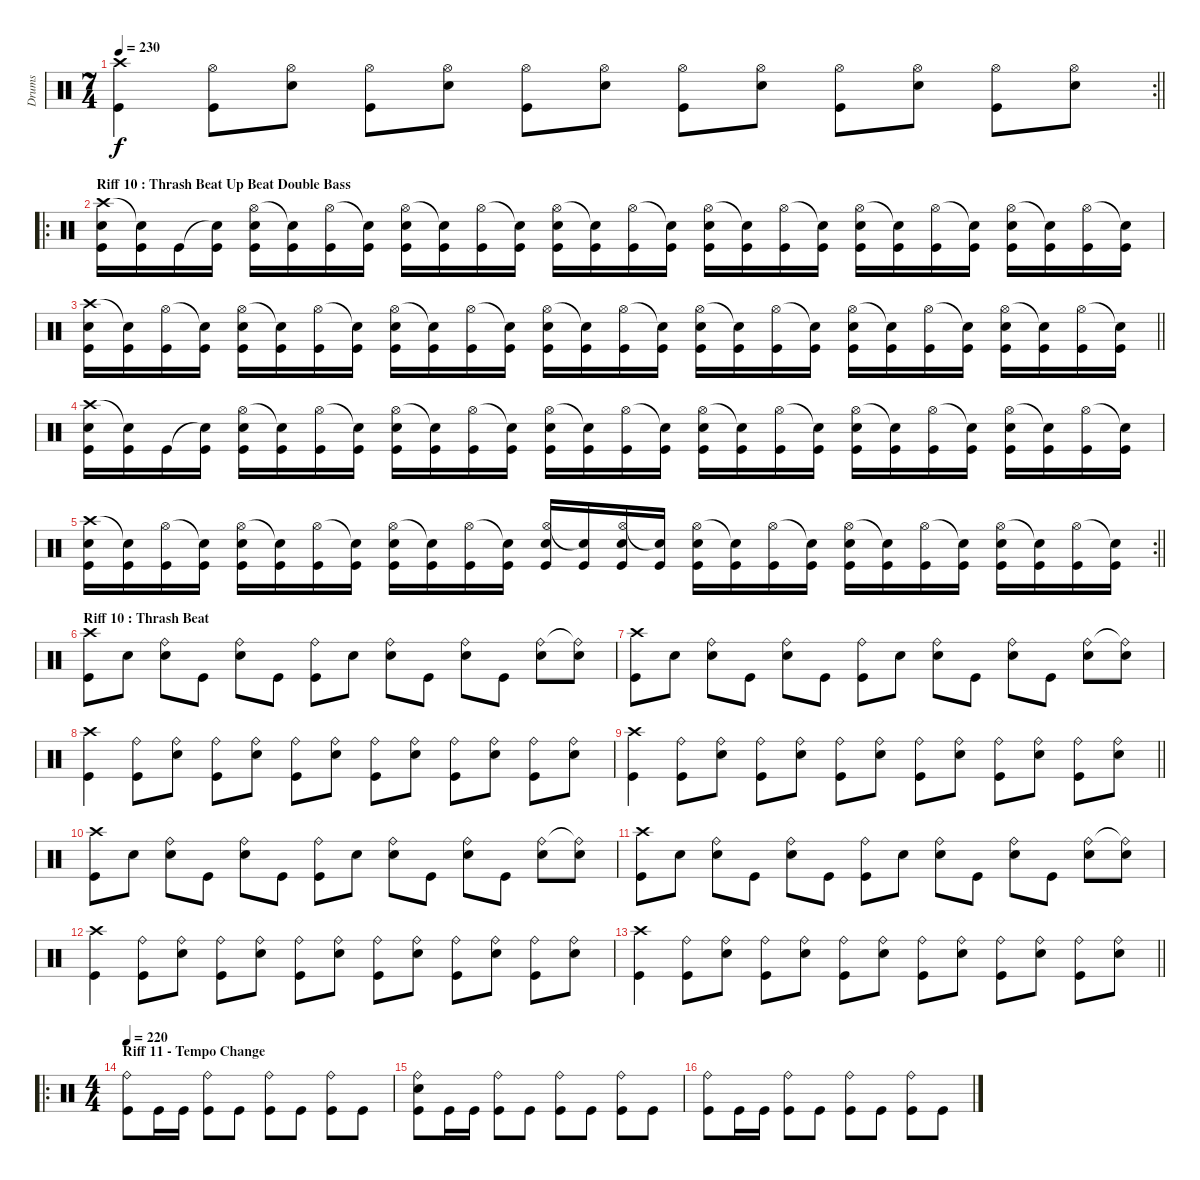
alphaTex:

\track ("Drums" "Drums") {instrument percussion}
\staff {score}
\articulation defaults
\rc 2
\ts (7 4)
\tempo 230
\clef neutral
\barLineRight lightlight
\ks c
("Crash high (hit)" "Kick (hit)").4{dy f} ("Hi-Hat (open)" "Kick (hit)").8 ("Hi-Hat (open)" "Electric Snare (hit)").8 ("Hi-Hat (open)" "Kick (hit)").8 ("Hi-Hat (open)" "Electric Snare (hit)").8 ("Hi-Hat (open)" "Kick (hit)").8 ("Hi-Hat (open)" "Electric Snare (hit)").8 ("Hi-Hat (open)" "Kick (hit)").8 ("Hi-Hat (open)" "Electric Snare (hit)").8 ("Hi-Hat (open)" "Kick (hit)").8 ("Hi-Hat (open)" "Electric Snare (hit)").8 ("Hi-Hat (open)" "Kick (hit)").8 ("Hi-Hat (open)" "Electric Snare (hit)").8 |
\ro
\section ("" "Riff 10 : Thrash Beat Up Beat Double Bass")
("Crash high (hit)" "Electric Snare (hit)" "Kick (hit)").16 ("Snare (hit)"{t} "Kick (hit)").16 "Kick (hit)".16 ("Snare (hit)"{t} "Kick (hit)").16 ("Hi-Hat (open)" "Electric Snare (hit)" "Kick (hit)").16 ("Snare (hit)"{t} "Kick (hit)").16 ("Hi-Hat (open)" "Kick (hit)").16 ("Snare (hit)"{t} "Kick (hit)").16 ("Hi-Hat (open)" "Electric Snare (hit)" "Kick (hit)").16 ("Snare (hit)"{t} "Kick (hit)").16 ("Hi-Hat (open)" "Kick (hit)").16 ("Snare (hit)"{t} "Kick (hit)").16 ("Hi-Hat (open)" "Electric Snare (hit)" "Kick (hit)").16 ("Snare (hit)"{t} "Kick (hit)").16 ("Hi-Hat (open)" "Kick (hit)").16 ("Snare (hit)"{t} "Kick (hit)").16 ("Hi-Hat (open)" "Electric Snare (hit)" "Kick (hit)").16 ("Snare (hit)"{t} "Kick (hit)").16 ("Hi-Hat (open)" "Kick (hit)").16 ("Snare (hit)"{t} "Kick (hit)").16 ("Hi-Hat (open)" "Electric Snare (hit)" "Kick (hit)").16 ("Snare (hit)"{t} "Kick (hit)").16 ("Hi-Hat (open)" "Kick (hit)").16 ("Snare (hit)"{t} "Kick (hit)").16 ("Hi-Hat (open)" "Electric Snare (hit)" "Kick (hit)").16 ("Snare (hit)"{t} "Kick (hit)").16 ("Hi-Hat (open)" "Kick (hit)").16 ("Snare (hit)"{t} "Kick (hit)").16 |
\barLineRight lightlight
("Crash high (hit)" "Electric Snare (hit)" "Kick (hit)").16 ("Snare (hit)"{t} "Kick (hit)").16 ("Hi-Hat (open)" "Kick (hit)").16 ("Snare (hit)"{t} "Kick (hit)").16 ("Hi-Hat (open)" "Electric Snare (hit)" "Kick (hit)").16 ("Snare (hit)"{t} "Kick (hit)").16 ("Hi-Hat (open)" "Kick (hit)").16 ("Snare (hit)"{t} "Kick (hit)").16 ("Hi-Hat (open)" "Electric Snare (hit)" "Kick (hit)").16 ("Snare (hit)"{t} "Kick (hit)").16 ("Hi-Hat (open)" "Kick (hit)").16 ("Snare (hit)"{t} "Kick (hit)").16 ("Hi-Hat (open)" "Electric Snare (hit)" "Kick (hit)").16 ("Snare (hit)"{t} "Kick (hit)").16 ("Hi-Hat (open)" "Kick (hit)").16 ("Snare (hit)"{t} "Kick (hit)").16 ("Hi-Hat (open)" "Electric Snare (hit)" "Kick (hit)").16 ("Snare (hit)"{t} "Kick (hit)").16 ("Hi-Hat (open)" "Kick (hit)").16 ("Snare (hit)"{t} "Kick (hit)").16 ("Hi-Hat (open)" "Electric Snare (hit)" "Kick (hit)").16 ("Snare (hit)"{t} "Kick (hit)").16 ("Hi-Hat (open)" "Kick (hit)").16 ("Snare (hit)"{t} "Kick (hit)").16 ("Hi-Hat (open)" "Electric Snare (hit)" "Kick (hit)").16 ("Snare (hit)"{t} "Kick (hit)").16 ("Hi-Hat (open)" "Kick (hit)").16 ("Snare (hit)"{t} "Kick (hit)").16 |
("Crash high (hit)" "Electric Snare (hit)" "Kick (hit)").16 ("Snare (hit)"{t} "Kick (hit)").16 "Kick (hit)".16 ("Snare (hit)"{t} "Kick (hit)").16 ("Hi-Hat (open)" "Electric Snare (hit)" "Kick (hit)").16 ("Snare (hit)"{t} "Kick (hit)").16 ("Hi-Hat (open)" "Kick (hit)").16 ("Snare (hit)"{t} "Kick (hit)").16 ("Hi-Hat (open)" "Electric Snare (hit)" "Kick (hit)").16 ("Snare (hit)"{t} "Kick (hit)").16 ("Hi-Hat (open)" "Kick (hit)").16 ("Snare (hit)"{t} "Kick (hit)").16 ("Hi-Hat (open)" "Electric Snare (hit)" "Kick (hit)").16 ("Snare (hit)"{t} "Kick (hit)").16 ("Hi-Hat (open)" "Kick (hit)").16 ("Snare (hit)"{t} "Kick (hit)").16 ("Hi-Hat (open)" "Electric Snare (hit)" "Kick (hit)").16 ("Snare (hit)"{t} "Kick (hit)").16 ("Hi-Hat (open)" "Kick (hit)").16 ("Snare (hit)"{t} "Kick (hit)").16 ("Hi-Hat (open)" "Electric Snare (hit)" "Kick (hit)").16 ("Snare (hit)"{t} "Kick (hit)").16 ("Hi-Hat (open)" "Kick (hit)").16 ("Snare (hit)"{t} "Kick (hit)").16 ("Hi-Hat (open)" "Electric Snare (hit)" "Kick (hit)").16 ("Snare (hit)"{t} "Kick (hit)").16 ("Hi-Hat (open)" "Kick (hit)").16 ("Snare (hit)"{t} "Kick (hit)").16 |
\rc 2
\barLineRight lightlight
("Crash high (hit)" "Electric Snare (hit)" "Kick (hit)").16 ("Snare (hit)"{t} "Kick (hit)").16 ("Hi-Hat (open)" "Kick (hit)").16 ("Snare (hit)"{t} "Kick (hit)").16 ("Hi-Hat (open)" "Electric Snare (hit)" "Kick (hit)").16 ("Snare (hit)"{t} "Kick (hit)").16 ("Hi-Hat (open)" "Kick (hit)").16 ("Snare (hit)"{t} "Kick (hit)").16 ("Hi-Hat (open)" "Electric Snare (hit)" "Kick (hit)").16 ("Snare (hit)"{t} "Kick (hit)").16 ("Hi-Hat (open)" "Kick (hit)").16 ("Snare (hit)"{t} "Kick (hit)").16 ("Hi-Hat (open)" "Electric Snare (hit)" "Kick (hit)").16 ("Snare (hit)"{t} "Kick (hit)").16 ("Hi-Hat (open)" "Electric Snare (hit)" "Kick (hit)").16 ("Snare (hit)"{t} "Kick (hit)").16 ("Hi-Hat (open)" "Electric Snare (hit)" "Kick (hit)").16 ("Snare (hit)"{t} "Kick (hit)").16 ("Hi-Hat (open)" "Kick (hit)").16 ("Snare (hit)"{t} "Kick (hit)").16 ("Hi-Hat (open)" "Electric Snare (hit)" "Kick (hit)").16 ("Snare (hit)"{t} "Kick (hit)").16 ("Hi-Hat (open)" "Kick (hit)").16 ("Snare (hit)"{t} "Kick (hit)").16 ("Hi-Hat (open)" "Electric Snare (hit)" "Kick (hit)").16 ("Snare (hit)"{t} "Kick (hit)").16 ("Hi-Hat (open)" "Kick (hit)").16 ("Snare (hit)"{t} "Kick (hit)").16 |
\section ("" "Riff 10 : Thrash Beat")
("Crash high (hit)" "Kick (hit)").8 "Electric Snare (hit)".8 ("Ride (bell)" "Electric Snare (hit)").8 "Kick (hit)".8 ("Ride (bell)" "Electric Snare (hit)").8 "Kick (hit)".8 ("Ride (bell)" "Kick (hit)").8 "Electric Snare (hit)".8 ("Ride (bell)" "Electric Snare (hit)").8 "Kick (hit)".8 ("Ride (bell)" "Electric Snare (hit)").8 "Kick (hit)".8 ("Ride (bell)" "Electric Snare (hit)").8 ("Ride (bell)"{t} "Electric Snare (hit)").8 |
("Crash high (hit)" "Kick (hit)").8 "Electric Snare (hit)".8 ("Ride (bell)" "Electric Snare (hit)").8 "Kick (hit)".8 ("Ride (bell)" "Electric Snare (hit)").8 "Kick (hit)".8 ("Ride (bell)" "Kick (hit)").8 "Electric Snare (hit)".8 ("Ride (bell)" "Electric Snare (hit)").8 "Kick (hit)".8 ("Ride (bell)" "Electric Snare (hit)").8 "Kick (hit)".8 ("Ride (bell)" "Electric Snare (hit)").8 ("Ride (bell)"{t} "Electric Snare (hit)").8 |
("Crash high (hit)" "Kick (hit)").4 ("Ride (bell)" "Kick (hit)").8 ("Ride (bell)" "Electric Snare (hit)").8 ("Ride (bell)" "Kick (hit)").8 ("Ride (bell)" "Electric Snare (hit)").8 ("Ride (bell)" "Kick (hit)").8 ("Ride (bell)" "Electric Snare (hit)").8 ("Ride (bell)" "Kick (hit)").8 ("Ride (bell)" "Electric Snare (hit)").8 ("Ride (bell)" "Kick (hit)").8 ("Ride (bell)" "Electric Snare (hit)").8 ("Ride (bell)" "Kick (hit)").8 ("Ride (bell)" "Electric Snare (hit)").8 |
\barLineRight lightlight
("Crash high (hit)" "Kick (hit)").4 ("Ride (bell)" "Kick (hit)").8 ("Ride (bell)" "Electric Snare (hit)").8 ("Ride (bell)" "Kick (hit)").8 ("Ride (bell)" "Electric Snare (hit)").8 ("Ride (bell)" "Kick (hit)").8 ("Ride (bell)" "Electric Snare (hit)").8 ("Ride (bell)" "Kick (hit)").8 ("Ride (bell)" "Electric Snare (hit)").8 ("Ride (bell)" "Kick (hit)").8 ("Ride (bell)" "Electric Snare (hit)").8 ("Ride (bell)" "Kick (hit)").8 ("Ride (bell)" "Electric Snare (hit)").8 |
("Crash high (hit)" "Kick (hit)").8 "Electric Snare (hit)".8 ("Ride (bell)" "Electric Snare (hit)").8 "Kick (hit)".8 ("Ride (bell)" "Electric Snare (hit)").8 "Kick (hit)".8 ("Ride (bell)" "Kick (hit)").8 "Electric Snare (hit)".8 ("Ride (bell)" "Electric Snare (hit)").8 "Kick (hit)".8 ("Ride (bell)" "Electric Snare (hit)").8 "Kick (hit)".8 ("Ride (bell)" "Electric Snare (hit)").8 ("Ride (bell)"{t} "Electric Snare (hit)").8 |
("Crash high (hit)" "Kick (hit)").8 "Electric Snare (hit)".8 ("Ride (bell)" "Electric Snare (hit)").8 "Kick (hit)".8 ("Ride (bell)" "Electric Snare (hit)").8 "Kick (hit)".8 ("Ride (bell)" "Kick (hit)").8 "Electric Snare (hit)".8 ("Ride (bell)" "Electric Snare (hit)").8 "Kick (hit)".8 ("Ride (bell)" "Electric Snare (hit)").8 "Kick (hit)".8 ("Ride (bell)" "Electric Snare (hit)").8 ("Ride (bell)"{t} "Electric Snare (hit)").8 |
("Crash high (hit)" "Kick (hit)").4 ("Ride (bell)" "Kick (hit)").8 ("Ride (bell)" "Electric Snare (hit)").8 ("Ride (bell)" "Kick (hit)").8 ("Ride (bell)" "Electric Snare (hit)").8 ("Ride (bell)" "Kick (hit)").8 ("Ride (bell)" "Electric Snare (hit)").8 ("Ride (bell)" "Kick (hit)").8 ("Ride (bell)" "Electric Snare (hit)").8 ("Ride (bell)" "Kick (hit)").8 ("Ride (bell)" "Electric Snare (hit)").8 ("Ride (bell)" "Kick (hit)").8 ("Ride (bell)" "Electric Snare (hit)").8 |
\barLineRight lightlight
("Crash high (hit)" "Kick (hit)").4 ("Ride (bell)" "Kick (hit)").8 ("Ride (bell)" "Electric Snare (hit)").8 ("Ride (bell)" "Kick (hit)").8 ("Ride (bell)" "Electric Snare (hit)").8 ("Ride (bell)" "Kick (hit)").8 ("Ride (bell)" "Electric Snare (hit)").8 ("Ride (bell)" "Kick (hit)").8 ("Ride (bell)" "Electric Snare (hit)").8 ("Ride (bell)" "Kick (hit)").8 ("Ride (bell)" "Electric Snare (hit)").8 ("Ride (bell)" "Kick (hit)").8 ("Ride (bell)" "Electric Snare (hit)").8 |
\ro
\ts (4 4)
\section ("" "Riff 11 - Tempo Change")
\tempo 220
("Ride (bell)" "Kick (hit)").8 "Kick (hit)".16 "Kick (hit)".16 ("Ride (bell)" "Kick (hit)").8 "Kick (hit)".8 ("Ride (bell)" "Kick (hit)").8 "Kick (hit)".8 ("Ride (bell)" "Kick (hit)").8 "Kick (hit)".8 |
("Ride (bell)" "Electric Snare (hit)" "Kick (hit)").8 "Kick (hit)".16 "Kick (hit)".16 ("Ride (bell)" "Kick (hit)").8 "Kick (hit)".8 ("Ride (bell)" "Kick (hit)").8 "Kick (hit)".8 ("Ride (bell)" "Kick (hit)").8 "Kick (hit)".8 |
("Ride (bell)" "Kick (hit)").8 "Kick (hit)".16 "Kick (hit)".16 ("Ride (bell)" "Kick (hit)").8 "Kick (hit)".8 ("Ride (bell)" "Kick (hit)").8 "Kick (hit)".8 ("Ride (bell)" "Kick (hit)").8 "Kick (hit)".8
